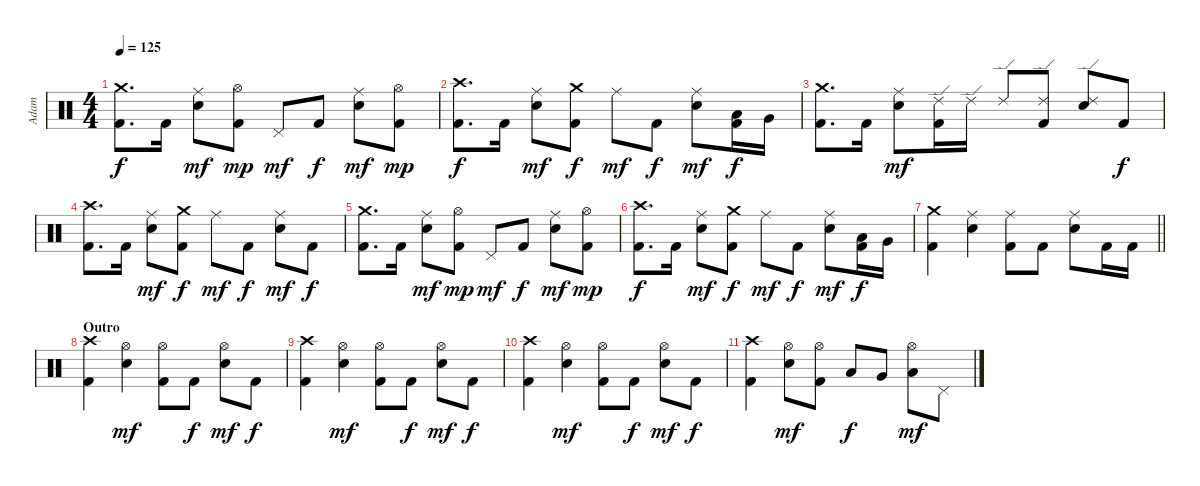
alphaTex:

\track ("Adam" "Adam") {instrument percussion}
\staff {score}
\articulation defaults
\ts (4 4)
\tempo 125
\clef neutral
\ks c
("Crash medium (hit)" "Kick (hit) 2").8{d dy f} "Kick (hit) 2".16 ("Ride (middle)" "Electric Snare (hit)").8{dy mf} ("Hi-Hat (open)" "Kick (hit) 2").8{dy mp} "Pedal Hi-Hat (hit)".8{dy mf} "Kick (hit) 2".8{dy f} ("Ride (middle)" "Electric Snare (hit)").8{dy mf} ("Hi-Hat (open)" "Kick (hit) 2").8{dy mp} |
("Crash high (hit)" "Kick (hit) 2").8{d dy f} "Kick (hit) 2".16 ("Ride (middle)" "Electric Snare (hit)").8{dy mf} ("Crash medium (hit)" "Kick (hit) 2").8{dy f} "Ride (middle)".8{dy mf} "Kick (hit) 2".8{dy f} ("Ride (middle)" "Electric Snare (hit)").8{dy mf} ("Low Tom (hit)" "Kick (hit) 2").16{dy f} "Very Low Tom (hit)".16 |
("Crash medium (hit)" "Kick (hit) 2").8{d} "Kick (hit) 2".16 ("Ride (middle)" "Electric Snare (hit)").8{dy mf} ("Ride (edge) 2" "Kick (hit) 2").16 "Ride (edge) 2".16 "Ride (edge) 2".8 ("Ride (edge) 2" "Kick (hit) 2").8 ("Ride (edge) 2" "Electric Snare (hit)").8 "Kick (hit) 2".8{dy f} |
("Crash high (hit)" "Kick (hit) 2").8{d} "Kick (hit) 2".16 ("Ride (middle)" "Electric Snare (hit)").8{dy mf} ("Crash medium (hit)" "Kick (hit) 2").8{dy f} "Ride (middle)".8{dy mf} "Kick (hit) 2".8{dy f} ("Ride (middle)" "Electric Snare (hit)").8{dy mf} "Kick (hit) 2".8{dy f} |
("Crash medium (hit)" "Kick (hit) 2").8{d} "Kick (hit) 2".16 ("Ride (middle)" "Electric Snare (hit)").8{dy mf} ("Hi-Hat (open)" "Kick (hit) 2").8{dy mp} "Pedal Hi-Hat (hit)".8{dy mf} "Kick (hit) 2".8{dy f} ("Ride (middle)" "Electric Snare (hit)").8{dy mf} ("Hi-Hat (open)" "Kick (hit) 2").8{dy mp} |
("Crash high (hit)" "Kick (hit) 2").8{d dy f} "Kick (hit) 2".16 ("Ride (middle)" "Electric Snare (hit)").8{dy mf} ("Crash medium (hit)" "Kick (hit) 2").8{dy f} "Ride (middle)".8{dy mf} "Kick (hit) 2".8{dy f} ("Ride (middle)" "Electric Snare (hit)").8{dy mf} ("Low Tom (hit)" "Kick (hit) 2").16{dy f} "Very Low Tom (hit)".16 |
\barLineRight lightlight
("Crash medium (hit)" "Kick (hit) 2").4 ("Ride (middle)" "Electric Snare (hit)").4 ("Ride (middle)" "Kick (hit) 2").8 "Kick (hit) 2".8 ("Ride (middle)" "Electric Snare (hit)").8 "Kick (hit) 2".16 "Kick (hit) 2".16 |
\section ("" "Outro")
("Crash high (hit)" "Kick (hit) 2").4 ("Hi-Hat (open)" "Electric Snare (hit)").4{dy mf} ("Hi-Hat (open)" "Kick (hit) 2").8 "Kick (hit) 2".8{dy f} ("Hi-Hat (open)" "Electric Snare (hit)").8{dy mf} "Kick (hit) 2".8{dy f} |
("Crash high (hit)" "Kick (hit) 2").4 ("Hi-Hat (open)" "Electric Snare (hit)").4{dy mf} ("Hi-Hat (open)" "Kick (hit) 2").8 "Kick (hit) 2".8{dy f} ("Hi-Hat (open)" "Electric Snare (hit)").8{dy mf} "Kick (hit) 2".8{dy f} |
("Crash high (hit)" "Kick (hit) 2").4 ("Hi-Hat (open)" "Electric Snare (hit)").4{dy mf} ("Hi-Hat (open)" "Kick (hit) 2").8 "Kick (hit) 2".8{dy f} ("Hi-Hat (open)" "Electric Snare (hit)").8{dy mf} "Kick (hit) 2".8{dy f} |
("Crash high (hit)" "Kick (hit) 2").4 ("Hi-Hat (open)" "Electric Snare (hit)").8{dy mf} ("Hi-Hat (open)" "Kick (hit) 2").8 "Low Tom (hit)".8{dy f} "Very Low Tom (hit)".8 ("Hi-Hat (open)" "Low Floor Tom (hit)").8{dy mf} "Pedal Hi-Hat (hit)".8
